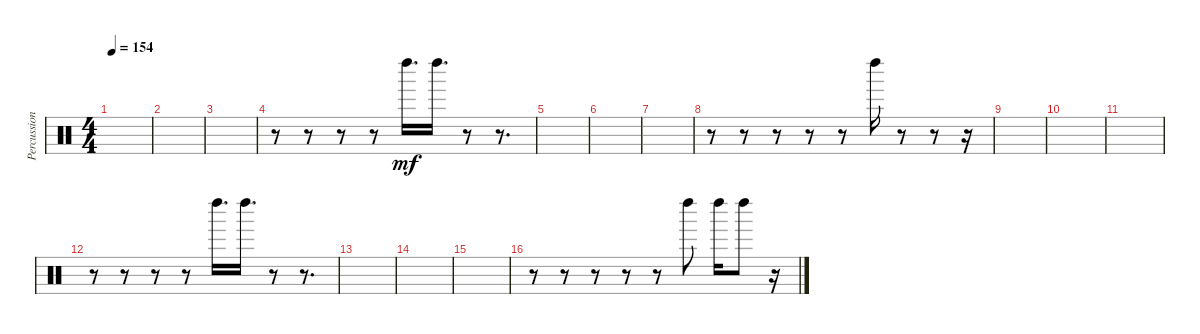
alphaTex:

\track ("Percussion" "Percussion") {instrument percussion}
\staff {score}
\articulation defaults
\ts (4 4)
\tempo 154
\clef neutral
\ks c
|
|
|
r.8 r.8 r.8 r.8 "Left Maraca (hit)".16{d dy mf} "Left Maraca (hit)".16{d} r.8 r.8{d} |
|
|
|
r.8 r.8 r.8 r.8 r.8 "Left Maraca (hit)".16 r.8 r.8 r.16 |
|
|
|
r.8 r.8 r.8 r.8 "Left Maraca (hit)".16{d} "Left Maraca (hit)".16{d} r.8 r.8{d} |
|
|
|
r.8 r.8 r.8 r.8 r.8 "Left Maraca (hit)".8 "Left Maraca (hit)".16 "Left Maraca (hit)".8 r.16
